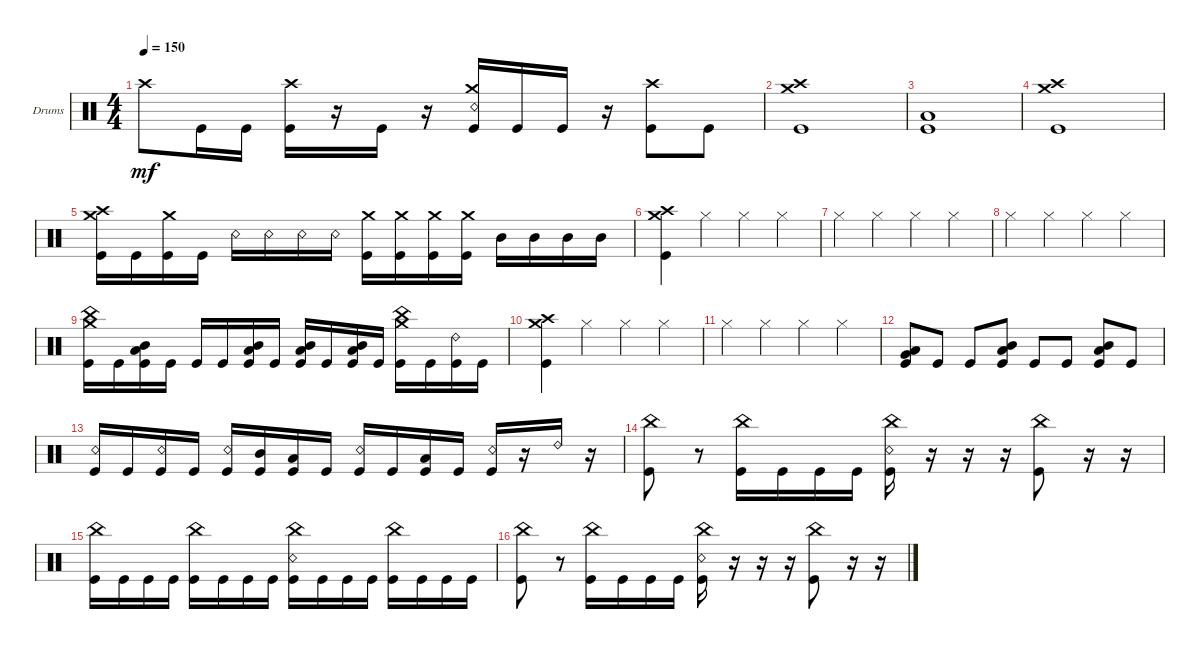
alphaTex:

\bracketExtendMode groupsimilarinstruments
\firstSystemTrackNameOrientation horizontal
\otherSystemsTrackNameOrientation horizontal
\track ("Drumkit" "Drums") {instrument percussion}
\staff {score}
\articulation defaults
\ts (4 4)
\tempo 150
\clef neutral
\ks c "Crash high (hit)".8{dy mf} "Kick (hit)".16 "Kick (hit)".16
("Kick (hit)" "Crash high (hit)").16 r.16 "Kick (hit)".16 r.16 ("Kick (hit)" "Crash medium (hit)" "Snare (rim shot)").16 "Kick (hit)".16 "Kick (hit)".16 r.16 ("Kick (hit)" "Crash high (hit)").8 "Kick (hit)".8 |
("Kick (hit)" "Crash high (hit)" "Crash medium (hit)").1 |
("Kick (hit)" "Low Tom (hit)").1 |
("Kick (hit)" "Crash high (hit)" "Crash medium (hit)").1 |
("Crash medium (hit)" "Kick (hit)" "Crash high (hit)").16 "Kick (hit)".16 ("Kick (hit)" "Crash medium (hit)").16 "Kick (hit)".16 "Snare (rim shot)".16 "Snare (rim shot)".16 "Snare (rim shot)".16 "Snare (rim shot)".16 ("Kick (hit)" "Crash medium (hit)").16 ("Kick (hit)" "Crash medium (hit)").16 ("Kick (hit)" "Crash medium (hit)").16 ("Kick (hit)" "Crash medium (hit)").16 "Mid Tom (hit)".16 "Mid Tom (hit)".16 "Mid Tom (hit)".16 "Mid Tom (hit)".16 |
("Kick (hit)" "Crash high (hit)" "Crash medium (hit)").4 "Hi-Hat (closed)".4 "Hi-Hat (closed)".4 "Hi-Hat (closed)".4 |
"Hi-Hat (closed)".4 "Hi-Hat (closed)".4 "Hi-Hat (closed)".4 "Hi-Hat (closed)".4 |
"Hi-Hat (closed)".4 "Hi-Hat (closed)".4 "Hi-Hat (closed)".4 "Hi-Hat (closed)".4 |
("Kick (hit)" "China (hit)" "Crash medium (hit)").16 "Kick (hit)".16 ("Kick (hit)" "Mid Tom (hit)" "Low Tom (hit)").16 "Kick (hit)".16 "Kick (hit)".16 "Kick (hit)".16 ("Kick (hit)" "Mid Tom (hit)" "Low Tom (hit)").16 "Kick (hit)".16 ("Kick (hit)" "Mid Tom (hit)" "Low Tom (hit)").16 "Kick (hit)".16 ("Kick (hit)" "Mid Tom (hit)" "Low Tom (hit)").16 "Kick (hit)".16 ("Kick (hit)" "China (hit)" "Crash medium (hit)").16 "Kick (hit)".16 ("Kick (hit)" "Ride (bell) 2").16 "Kick (hit)".16 |
("Kick (hit)" "Crash high (hit)" "Crash medium (hit)").4 "Hi-Hat (closed)".4 "Hi-Hat (closed)".4 "Hi-Hat (closed)".4 |
"Hi-Hat (closed)".4 "Hi-Hat (closed)".4 "Hi-Hat (closed)".4 "Hi-Hat (closed)".4 |
("Kick (hit)" "Low Tom (hit)" "Very Low Tom (hit)").8 "Kick (hit)".8 "Kick (hit)".8 ("Kick (hit)" "Mid Tom (hit)" "Low Tom (hit)").8 "Kick (hit)".8 "Kick (hit)".8 ("Kick (hit)" "Low Tom (hit)" "Mid Tom (hit)").8 "Kick (hit)".8 |
("Kick (hit)" "Snare (rim shot)").16 "Kick (hit)".16 ("Kick (hit)" "Snare (rim shot)").16 "Kick (hit)".16 ("Kick (hit)" "Snare (rim shot)").16 ("Kick (hit)" "Mid Tom (hit)").16 ("Kick (hit)" "Low Tom (hit)").16 "Kick (hit)".16 ("Kick (hit)" "Snare (rim shot)").16 "Kick (hit)".16 ("Kick (hit)" "Low Tom (hit)").16 "Kick (hit)".16 ("Kick (hit)" "Snare (rim shot)").16 r.16 "Ride (bell) 2".16 r.16 |
("Kick (hit)" "China (hit)").8 r.8 ("Kick (hit)" "China (hit)").16 "Kick (hit)".16 "Kick (hit)".16 "Kick (hit)".16 ("Kick (hit)" "China (hit)" "Snare (rim shot)").16 r.16 r.16 r.16 ("Kick (hit)" "China (hit)").8 r.16 r.16 |
("Kick (hit)" "China (hit)").16 "Kick (hit)".16 "Kick (hit)".16 "Kick (hit)".16 ("Kick (hit)" "China (hit)").16 "Kick (hit)".16 "Kick (hit)".16 "Kick (hit)".16 ("Kick (hit)" "China (hit)" "Snare (rim shot)").16 "Kick (hit)".16 "Kick (hit)".16 "Kick (hit)".16 ("Kick (hit)" "China (hit)").16 "Kick (hit)".16 "Kick (hit)".16 "Kick (hit)".16 |
("Kick (hit)" "China (hit)").8 r.8 ("Kick (hit)" "China (hit)").16 "Kick (hit)".16 "Kick (hit)".16 "Kick (hit)".16 ("Kick (hit)" "China (hit)" "Snare (rim shot)").16 r.16 r.16 r.16 ("Kick (hit)" "China (hit)").8 r.16 r.16
